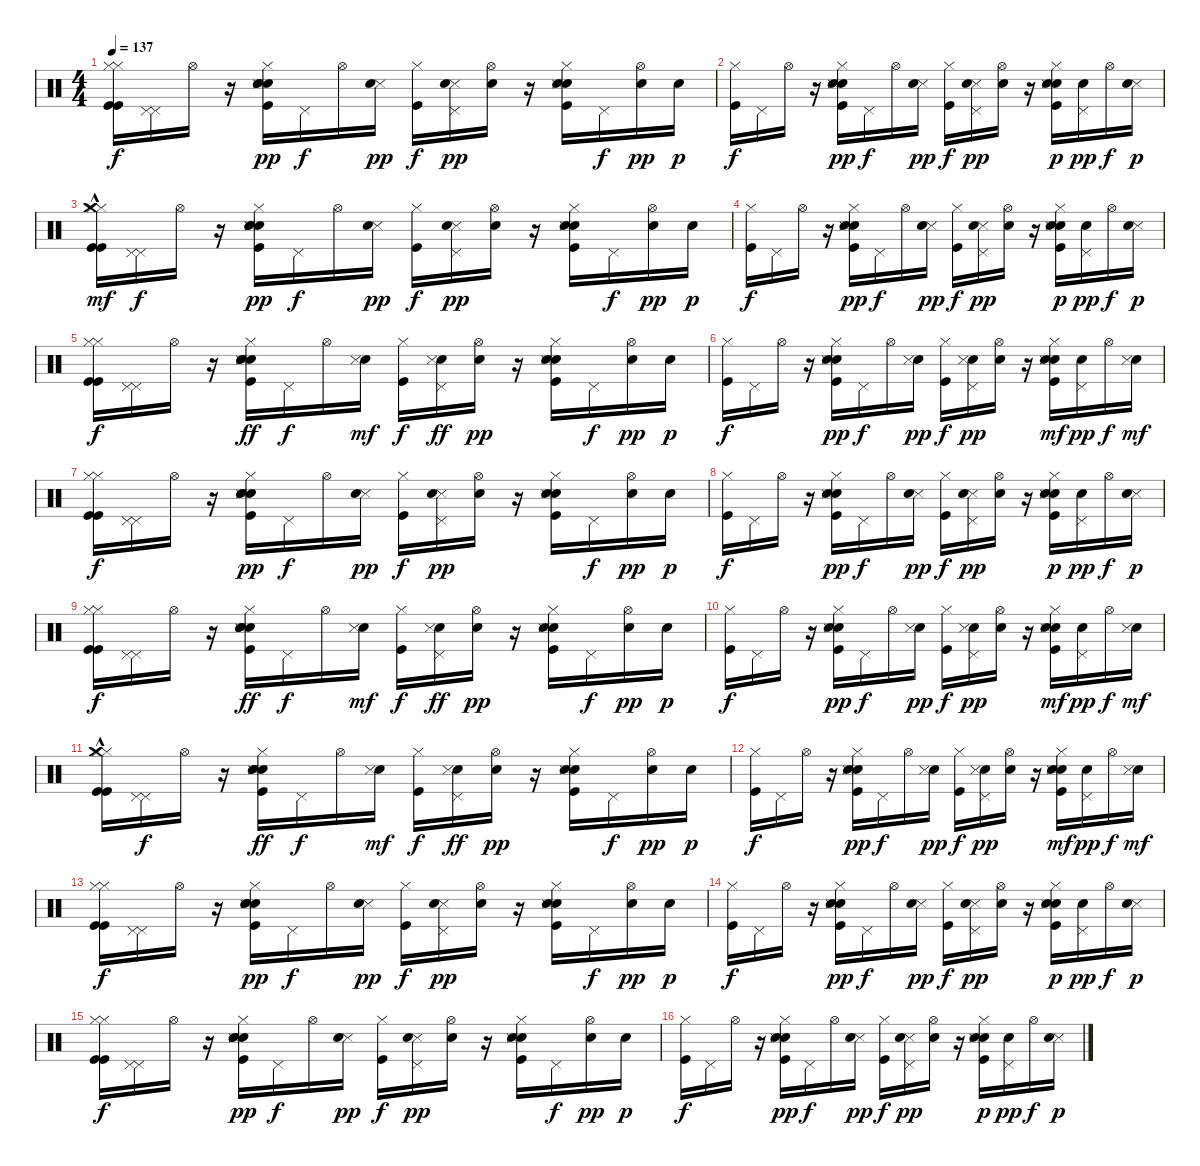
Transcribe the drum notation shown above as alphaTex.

\track "" {instrument percussion}
\staff {score}
\articulation defaults
\ts (4 4)
\tempo 137
\clef neutral
\ks c
("Hi-Hat (closed)" "Kick (hit)" "Kick (hit)" "Hi-Hat (closed)").16{dy f volume 13} ("Pedal Hi-Hat (hit)" "Pedal Hi-Hat (hit)").16 "Hi-Hat (open)".16 r.16 ("Hand Clap (hit)" "Kick (hit)" "Hi-Hat (closed)" "Snare (side stick) 3" "Metronome (bell)" "Metronome (bell)").16{dy pp} "Pedal Hi-Hat (hit)".16{dy f} "Hi-Hat (open)".16 ("Snare (side stick) 3" "Metronome (bell)").16{dy pp} ("Kick (hit)" "Hi-Hat (closed)").16{dy f} ("Pedal Hi-Hat (hit)" "Snare (side stick) 3" "Metronome (bell)").16{dy pp} ("Hi-Hat (open)" "Metronome (bell)").16 r.16 ("Hand Clap (hit)" "Hi-Hat (closed)" "Kick (hit)" "Snare (side stick) 3" "Metronome (bell)").16 "Pedal Hi-Hat (hit)".16{dy f} ("Hi-Hat (open)" "Metronome (bell)").16{dy pp} "Metronome (bell)".16{dy p} |
("Hi-Hat (closed)" "Kick (hit)").16{dy f} "Pedal Hi-Hat (hit)".16 "Hi-Hat (open)".16 r.16 ("Hand Clap (hit)" "Kick (hit)" "Hi-Hat (closed)" "Snare (side stick) 3" "Metronome (bell)").16{dy pp} "Pedal Hi-Hat (hit)".16{dy f} "Hi-Hat (open)".16 ("Snare (side stick) 3" "Metronome (bell)").16{dy pp} ("Kick (hit)" "Hi-Hat (closed)").16{dy f} ("Pedal Hi-Hat (hit)" "Snare (side stick) 3" "Metronome (bell)").16{dy pp} ("Hi-Hat (open)" "Metronome (bell)").16 r.16 ("Hand Clap (hit)" "Hi-Hat (closed)" "Kick (hit)" "Snare (side stick) 3" "Metronome (bell)").16{dy p} ("Pedal Hi-Hat (hit)" "Metronome (bell)").16{dy pp} "Hi-Hat (open)".16{dy f} ("Snare (side stick) 3" "Metronome (bell)").16{dy p} |
("Hi-Hat (closed)" "Kick (hit)" "Kick (hit)" "Hi-Hat (closed)" "Crash medium (hit)"{hac}).16{dy mf volume 13} ("Pedal Hi-Hat (hit)" "Pedal Hi-Hat (hit)").16{dy f} "Hi-Hat (open)".16 r.16 ("Hand Clap (hit)" "Kick (hit)" "Hi-Hat (closed)" "Snare (side stick) 3" "Metronome (bell)" "Metronome (bell)").16{dy pp} "Pedal Hi-Hat (hit)".16{dy f} "Hi-Hat (open)".16 ("Snare (side stick) 3" "Metronome (bell)").16{dy pp} ("Kick (hit)" "Hi-Hat (closed)").16{dy f} ("Pedal Hi-Hat (hit)" "Snare (side stick) 3" "Metronome (bell)").16{dy pp} ("Hi-Hat (open)" "Metronome (bell)").16 r.16 ("Hand Clap (hit)" "Hi-Hat (closed)" "Kick (hit)" "Snare (side stick) 3" "Metronome (bell)").16 "Pedal Hi-Hat (hit)".16{dy f} ("Hi-Hat (open)" "Metronome (bell)").16{dy pp} "Metronome (bell)".16{dy p} |
("Hi-Hat (closed)" "Kick (hit)").16{dy f} "Pedal Hi-Hat (hit)".16 "Hi-Hat (open)".16 r.16 ("Hand Clap (hit)" "Kick (hit)" "Hi-Hat (closed)" "Snare (side stick) 3" "Metronome (bell)").16{dy pp} "Pedal Hi-Hat (hit)".16{dy f} "Hi-Hat (open)".16 ("Snare (side stick) 3" "Metronome (bell)").16{dy pp} ("Kick (hit)" "Hi-Hat (closed)").16{dy f} ("Pedal Hi-Hat (hit)" "Snare (side stick) 3" "Metronome (bell)").16{dy pp} ("Hi-Hat (open)" "Metronome (bell)").16 r.16 ("Hand Clap (hit)" "Hi-Hat (closed)" "Kick (hit)" "Snare (side stick) 3" "Metronome (bell)").16{dy p} ("Pedal Hi-Hat (hit)" "Metronome (bell)").16{dy pp} "Hi-Hat (open)".16{dy f} ("Snare (side stick) 3" "Metronome (bell)").16{dy p} |
("Hi-Hat (closed)" "Kick (hit)" "Kick (hit)" "Hi-Hat (closed)").16{dy f volume 13} ("Pedal Hi-Hat (hit)" "Pedal Hi-Hat (hit)").16 "Hi-Hat (open)".16 r.16 ("Hand Clap (hit)" "Kick (hit)" "Hi-Hat (closed)" "Metronome (bell)" "Metronome (bell)" "Snare (side stick) 3").16{dy ff} "Pedal Hi-Hat (hit)".16{dy f} "Hi-Hat (open)".16 ("Metronome (bell)" "Snare (side stick) 3").16{dy mf} ("Kick (hit)" "Hi-Hat (closed)").16{dy f} ("Pedal Hi-Hat (hit)" "Metronome (bell)" "Snare (side stick) 3").16{dy ff} ("Hi-Hat (open)" "Metronome (bell)").16{dy pp} r.16 ("Hand Clap (hit)" "Hi-Hat (closed)" "Kick (hit)" "Metronome (bell)" "Snare (side stick) 3").16 "Pedal Hi-Hat (hit)".16{dy f} ("Hi-Hat (open)" "Metronome (bell)").16{dy pp} "Metronome (bell)".16{dy p} |
("Hi-Hat (closed)" "Kick (hit)").16{dy f} "Pedal Hi-Hat (hit)".16 "Hi-Hat (open)".16 r.16 ("Hand Clap (hit)" "Kick (hit)" "Hi-Hat (closed)" "Metronome (bell)" "Snare (side stick) 3").16{dy pp} "Pedal Hi-Hat (hit)".16{dy f} "Hi-Hat (open)".16 ("Metronome (bell)" "Snare (side stick) 3").16{dy pp} ("Kick (hit)" "Hi-Hat (closed)").16{dy f} ("Pedal Hi-Hat (hit)" "Metronome (bell)" "Snare (side stick) 3").16{dy pp} ("Hi-Hat (open)" "Metronome (bell)").16 r.16 ("Hand Clap (hit)" "Hi-Hat (closed)" "Kick (hit)" "Metronome (bell)" "Snare (side stick) 3").16{dy mf} ("Pedal Hi-Hat (hit)" "Metronome (bell)").16{dy pp} "Hi-Hat (open)".16{dy f} ("Metronome (bell)" "Snare (side stick) 3").16{dy mf} |
("Hi-Hat (closed)" "Kick (hit)" "Kick (hit)" "Hi-Hat (closed)").16{dy f volume 13} ("Pedal Hi-Hat (hit)" "Pedal Hi-Hat (hit)").16 "Hi-Hat (open)".16 r.16 ("Hand Clap (hit)" "Kick (hit)" "Hi-Hat (closed)" "Snare (side stick) 3" "Metronome (bell)" "Metronome (bell)").16{dy pp} "Pedal Hi-Hat (hit)".16{dy f} "Hi-Hat (open)".16 ("Snare (side stick) 3" "Metronome (bell)").16{dy pp} ("Kick (hit)" "Hi-Hat (closed)").16{dy f} ("Pedal Hi-Hat (hit)" "Snare (side stick) 3" "Metronome (bell)").16{dy pp} ("Hi-Hat (open)" "Metronome (bell)").16 r.16 ("Hand Clap (hit)" "Hi-Hat (closed)" "Kick (hit)" "Snare (side stick) 3" "Metronome (bell)").16 "Pedal Hi-Hat (hit)".16{dy f} ("Hi-Hat (open)" "Metronome (bell)").16{dy pp} "Metronome (bell)".16{dy p} |
("Hi-Hat (closed)" "Kick (hit)").16{dy f} "Pedal Hi-Hat (hit)".16 "Hi-Hat (open)".16 r.16 ("Hand Clap (hit)" "Kick (hit)" "Hi-Hat (closed)" "Snare (side stick) 3" "Metronome (bell)").16{dy pp} "Pedal Hi-Hat (hit)".16{dy f} "Hi-Hat (open)".16 ("Snare (side stick) 3" "Metronome (bell)").16{dy pp} ("Kick (hit)" "Hi-Hat (closed)").16{dy f} ("Pedal Hi-Hat (hit)" "Snare (side stick) 3" "Metronome (bell)").16{dy pp} ("Hi-Hat (open)" "Metronome (bell)").16 r.16 ("Hand Clap (hit)" "Hi-Hat (closed)" "Kick (hit)" "Snare (side stick) 3" "Metronome (bell)").16{dy p} ("Pedal Hi-Hat (hit)" "Metronome (bell)").16{dy pp} "Hi-Hat (open)".16{dy f} ("Snare (side stick) 3" "Metronome (bell)").16{dy p} |
("Hi-Hat (closed)" "Kick (hit)" "Kick (hit)" "Hi-Hat (closed)").16{dy f volume 13} ("Pedal Hi-Hat (hit)" "Pedal Hi-Hat (hit)").16 "Hi-Hat (open)".16 r.16 ("Hand Clap (hit)" "Kick (hit)" "Hi-Hat (closed)" "Metronome (bell)" "Metronome (bell)" "Snare (side stick) 3").16{dy ff} "Pedal Hi-Hat (hit)".16{dy f} "Hi-Hat (open)".16 ("Metronome (bell)" "Snare (side stick) 3").16{dy mf} ("Kick (hit)" "Hi-Hat (closed)").16{dy f} ("Pedal Hi-Hat (hit)" "Metronome (bell)" "Snare (side stick) 3").16{dy ff} ("Hi-Hat (open)" "Metronome (bell)").16{dy pp} r.16 ("Hand Clap (hit)" "Hi-Hat (closed)" "Kick (hit)" "Metronome (bell)" "Snare (side stick) 3").16 "Pedal Hi-Hat (hit)".16{dy f} ("Hi-Hat (open)" "Metronome (bell)").16{dy pp} "Metronome (bell)".16{dy p} |
("Hi-Hat (closed)" "Kick (hit)").16{dy f} "Pedal Hi-Hat (hit)".16 "Hi-Hat (open)".16 r.16 ("Hand Clap (hit)" "Kick (hit)" "Hi-Hat (closed)" "Metronome (bell)" "Snare (side stick) 3").16{dy pp} "Pedal Hi-Hat (hit)".16{dy f} "Hi-Hat (open)".16 ("Metronome (bell)" "Snare (side stick) 3").16{dy pp} ("Kick (hit)" "Hi-Hat (closed)").16{dy f} ("Pedal Hi-Hat (hit)" "Metronome (bell)" "Snare (side stick) 3").16{dy pp} ("Hi-Hat (open)" "Metronome (bell)").16 r.16 ("Hand Clap (hit)" "Hi-Hat (closed)" "Kick (hit)" "Metronome (bell)" "Snare (side stick) 3").16{dy mf} ("Pedal Hi-Hat (hit)" "Metronome (bell)").16{dy pp} "Hi-Hat (open)".16{dy f} ("Metronome (bell)" "Snare (side stick) 3").16{dy mf} |
("Hi-Hat (closed)" "Kick (hit)" "Kick (hit)" "Hi-Hat (closed)" "Crash medium (hit)"{hac}).16{volume 13} ("Pedal Hi-Hat (hit)" "Pedal Hi-Hat (hit)").16{dy f} "Hi-Hat (open)".16 r.16 ("Hand Clap (hit)" "Kick (hit)" "Hi-Hat (closed)" "Metronome (bell)" "Metronome (bell)" "Snare (side stick) 3").16{dy ff} "Pedal Hi-Hat (hit)".16{dy f} "Hi-Hat (open)".16 ("Metronome (bell)" "Snare (side stick) 3").16{dy mf} ("Kick (hit)" "Hi-Hat (closed)").16{dy f} ("Pedal Hi-Hat (hit)" "Metronome (bell)" "Snare (side stick) 3").16{dy ff} ("Hi-Hat (open)" "Metronome (bell)").16{dy pp} r.16 ("Hand Clap (hit)" "Hi-Hat (closed)" "Kick (hit)" "Metronome (bell)" "Snare (side stick) 3").16 "Pedal Hi-Hat (hit)".16{dy f} ("Hi-Hat (open)" "Metronome (bell)").16{dy pp} "Metronome (bell)".16{dy p} |
("Hi-Hat (closed)" "Kick (hit)").16{dy f} "Pedal Hi-Hat (hit)".16 "Hi-Hat (open)".16 r.16 ("Hand Clap (hit)" "Kick (hit)" "Hi-Hat (closed)" "Metronome (bell)" "Snare (side stick) 3").16{dy pp} "Pedal Hi-Hat (hit)".16{dy f} "Hi-Hat (open)".16 ("Metronome (bell)" "Snare (side stick) 3").16{dy pp} ("Kick (hit)" "Hi-Hat (closed)").16{dy f} ("Pedal Hi-Hat (hit)" "Metronome (bell)" "Snare (side stick) 3").16{dy pp} ("Hi-Hat (open)" "Metronome (bell)").16 r.16 ("Hand Clap (hit)" "Hi-Hat (closed)" "Kick (hit)" "Metronome (bell)" "Snare (side stick) 3").16{dy mf} ("Pedal Hi-Hat (hit)" "Metronome (bell)").16{dy pp} "Hi-Hat (open)".16{dy f} ("Metronome (bell)" "Snare (side stick) 3").16{dy mf} |
("Hi-Hat (closed)" "Kick (hit)" "Kick (hit)" "Hi-Hat (closed)").16{dy f volume 13} ("Pedal Hi-Hat (hit)" "Pedal Hi-Hat (hit)").16 "Hi-Hat (open)".16 r.16 ("Hand Clap (hit)" "Kick (hit)" "Hi-Hat (closed)" "Snare (side stick) 3" "Metronome (bell)" "Metronome (bell)").16{dy pp} "Pedal Hi-Hat (hit)".16{dy f} "Hi-Hat (open)".16 ("Snare (side stick) 3" "Metronome (bell)").16{dy pp} ("Kick (hit)" "Hi-Hat (closed)").16{dy f} ("Pedal Hi-Hat (hit)" "Snare (side stick) 3" "Metronome (bell)").16{dy pp} ("Hi-Hat (open)" "Metronome (bell)").16 r.16 ("Hand Clap (hit)" "Hi-Hat (closed)" "Kick (hit)" "Snare (side stick) 3" "Metronome (bell)").16 "Pedal Hi-Hat (hit)".16{dy f} ("Hi-Hat (open)" "Metronome (bell)").16{dy pp} "Metronome (bell)".16{dy p} |
("Hi-Hat (closed)" "Kick (hit)").16{dy f} "Pedal Hi-Hat (hit)".16 "Hi-Hat (open)".16 r.16 ("Hand Clap (hit)" "Kick (hit)" "Hi-Hat (closed)" "Snare (side stick) 3" "Metronome (bell)").16{dy pp} "Pedal Hi-Hat (hit)".16{dy f} "Hi-Hat (open)".16 ("Snare (side stick) 3" "Metronome (bell)").16{dy pp} ("Kick (hit)" "Hi-Hat (closed)").16{dy f} ("Pedal Hi-Hat (hit)" "Snare (side stick) 3" "Metronome (bell)").16{dy pp} ("Hi-Hat (open)" "Metronome (bell)").16 r.16 ("Hand Clap (hit)" "Hi-Hat (closed)" "Kick (hit)" "Snare (side stick) 3" "Metronome (bell)").16{dy p} ("Pedal Hi-Hat (hit)" "Metronome (bell)").16{dy pp} "Hi-Hat (open)".16{dy f} ("Snare (side stick) 3" "Metronome (bell)").16{dy p} |
("Hi-Hat (closed)" "Kick (hit)" "Kick (hit)" "Hi-Hat (closed)").16{dy f volume 13} ("Pedal Hi-Hat (hit)" "Pedal Hi-Hat (hit)").16 "Hi-Hat (open)".16 r.16 ("Hand Clap (hit)" "Kick (hit)" "Hi-Hat (closed)" "Snare (side stick) 3" "Metronome (bell)" "Metronome (bell)").16{dy pp} "Pedal Hi-Hat (hit)".16{dy f} "Hi-Hat (open)".16 ("Snare (side stick) 3" "Metronome (bell)").16{dy pp} ("Kick (hit)" "Hi-Hat (closed)").16{dy f} ("Pedal Hi-Hat (hit)" "Snare (side stick) 3" "Metronome (bell)").16{dy pp} ("Hi-Hat (open)" "Metronome (bell)").16 r.16 ("Hand Clap (hit)" "Hi-Hat (closed)" "Kick (hit)" "Snare (side stick) 3" "Metronome (bell)").16 "Pedal Hi-Hat (hit)".16{dy f} ("Hi-Hat (open)" "Metronome (bell)").16{dy pp} "Metronome (bell)".16{dy p} |
("Hi-Hat (closed)" "Kick (hit)").16{dy f} "Pedal Hi-Hat (hit)".16 "Hi-Hat (open)".16 r.16 ("Hand Clap (hit)" "Kick (hit)" "Hi-Hat (closed)" "Snare (side stick) 3" "Metronome (bell)").16{dy pp} "Pedal Hi-Hat (hit)".16{dy f} "Hi-Hat (open)".16 ("Snare (side stick) 3" "Metronome (bell)").16{dy pp} ("Kick (hit)" "Hi-Hat (closed)").16{dy f} ("Pedal Hi-Hat (hit)" "Snare (side stick) 3" "Metronome (bell)").16{dy pp} ("Hi-Hat (open)" "Metronome (bell)").16 r.16 ("Hand Clap (hit)" "Hi-Hat (closed)" "Kick (hit)" "Snare (side stick) 3" "Metronome (bell)").16{dy p} ("Pedal Hi-Hat (hit)" "Metronome (bell)").16{dy pp} "Hi-Hat (open)".16{dy f} ("Snare (side stick) 3" "Metronome (bell)").16{dy p}
